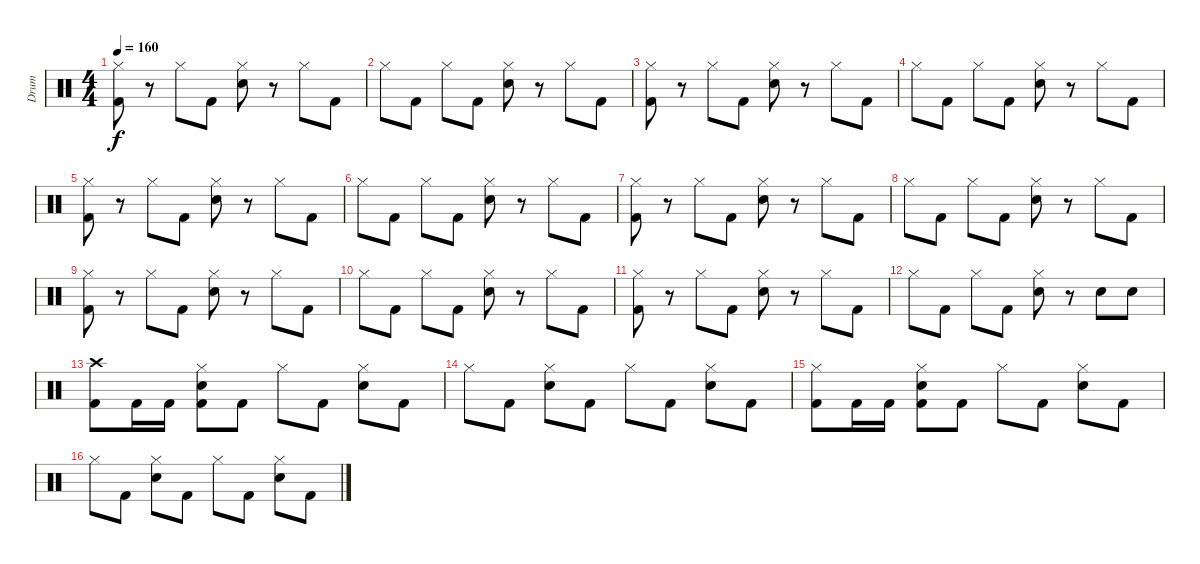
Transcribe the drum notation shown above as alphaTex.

\track ("Drum" "Drum") {instrument percussion}
\staff {score}
\articulation defaults
\ts (4 4)
\tempo 160
\clef neutral
\ks c
("Hi-Hat (closed)" "Kick (hit) 2").8{dy f} r.8 "Hi-Hat (closed)".8 "Kick (hit) 2".8 ("Hi-Hat (closed)" "Electric Snare (hit)").8 r.8 "Hi-Hat (closed)".8 "Kick (hit) 2".8 |
"Hi-Hat (closed)".8 "Kick (hit) 2".8 "Hi-Hat (closed)".8 "Kick (hit) 2".8 ("Hi-Hat (closed)" "Electric Snare (hit)").8 r.8 "Hi-Hat (closed)".8 "Kick (hit) 2".8 |
("Hi-Hat (closed)" "Kick (hit) 2").8 r.8 "Hi-Hat (closed)".8 "Kick (hit) 2".8 ("Hi-Hat (closed)" "Electric Snare (hit)").8 r.8 "Hi-Hat (closed)".8 "Kick (hit) 2".8 |
"Hi-Hat (closed)".8 "Kick (hit) 2".8 "Hi-Hat (closed)".8 "Kick (hit) 2".8 ("Hi-Hat (closed)" "Electric Snare (hit)").8 r.8 "Hi-Hat (closed)".8 "Kick (hit) 2".8 |
("Hi-Hat (closed)" "Kick (hit) 2").8 r.8 "Hi-Hat (closed)".8 "Kick (hit) 2".8 ("Hi-Hat (closed)" "Electric Snare (hit)").8 r.8 "Hi-Hat (closed)".8 "Kick (hit) 2".8 |
"Hi-Hat (closed)".8 "Kick (hit) 2".8 "Hi-Hat (closed)".8 "Kick (hit) 2".8 ("Hi-Hat (closed)" "Electric Snare (hit)").8 r.8 "Hi-Hat (closed)".8 "Kick (hit) 2".8 |
("Hi-Hat (closed)" "Kick (hit) 2").8 r.8 "Hi-Hat (closed)".8 "Kick (hit) 2".8 ("Hi-Hat (closed)" "Electric Snare (hit)").8 r.8 "Hi-Hat (closed)".8 "Kick (hit) 2".8 |
"Hi-Hat (closed)".8 "Kick (hit) 2".8 "Hi-Hat (closed)".8 "Kick (hit) 2".8 ("Hi-Hat (closed)" "Electric Snare (hit)").8 r.8 "Hi-Hat (closed)".8 "Kick (hit) 2".8 |
("Hi-Hat (closed)" "Kick (hit) 2").8 r.8 "Hi-Hat (closed)".8 "Kick (hit) 2".8 ("Hi-Hat (closed)" "Electric Snare (hit)").8 r.8 "Hi-Hat (closed)".8 "Kick (hit) 2".8 |
"Hi-Hat (closed)".8 "Kick (hit) 2".8 "Hi-Hat (closed)".8 "Kick (hit) 2".8 ("Hi-Hat (closed)" "Electric Snare (hit)").8 r.8 "Hi-Hat (closed)".8 "Kick (hit) 2".8 |
("Hi-Hat (closed)" "Kick (hit) 2").8 r.8 "Hi-Hat (closed)".8 "Kick (hit) 2".8 ("Hi-Hat (closed)" "Electric Snare (hit)").8 r.8 "Hi-Hat (closed)".8 "Kick (hit) 2".8 |
"Hi-Hat (closed)".8 "Kick (hit) 2".8 "Hi-Hat (closed)".8 "Kick (hit) 2".8 ("Hi-Hat (closed)" "Electric Snare (hit)").8 r.8 "Electric Snare (hit)".8 "Electric Snare (hit)".8 |
("Crash high (hit)" "Kick (hit) 2").8 "Kick (hit) 2".16 "Kick (hit) 2".16 ("Hi-Hat (closed)" "Electric Snare (hit)" "Kick (hit) 2").8 "Kick (hit) 2".8 "Hi-Hat (closed)".8 "Kick (hit) 2".8 ("Hi-Hat (closed)" "Electric Snare (hit)").8 "Kick (hit) 2".8 |
"Hi-Hat (closed)".8 "Kick (hit) 2".8 ("Hi-Hat (closed)" "Electric Snare (hit)").8 "Kick (hit) 2".8 "Hi-Hat (closed)".8 "Kick (hit) 2".8 ("Hi-Hat (closed)" "Electric Snare (hit)").8 "Kick (hit) 2".8 |
("Hi-Hat (closed)" "Kick (hit) 2").8 "Kick (hit) 2".16 "Kick (hit) 2".16 ("Hi-Hat (closed)" "Electric Snare (hit)" "Kick (hit) 2").8 "Kick (hit) 2".8 "Hi-Hat (closed)".8 "Kick (hit) 2".8 ("Hi-Hat (closed)" "Electric Snare (hit)").8 "Kick (hit) 2".8 |
"Hi-Hat (closed)".8 "Kick (hit) 2".8 ("Hi-Hat (closed)" "Electric Snare (hit)").8 "Kick (hit) 2".8 "Hi-Hat (closed)".8 "Kick (hit) 2".8 ("Hi-Hat (closed)" "Electric Snare (hit)").8 "Kick (hit) 2".8
